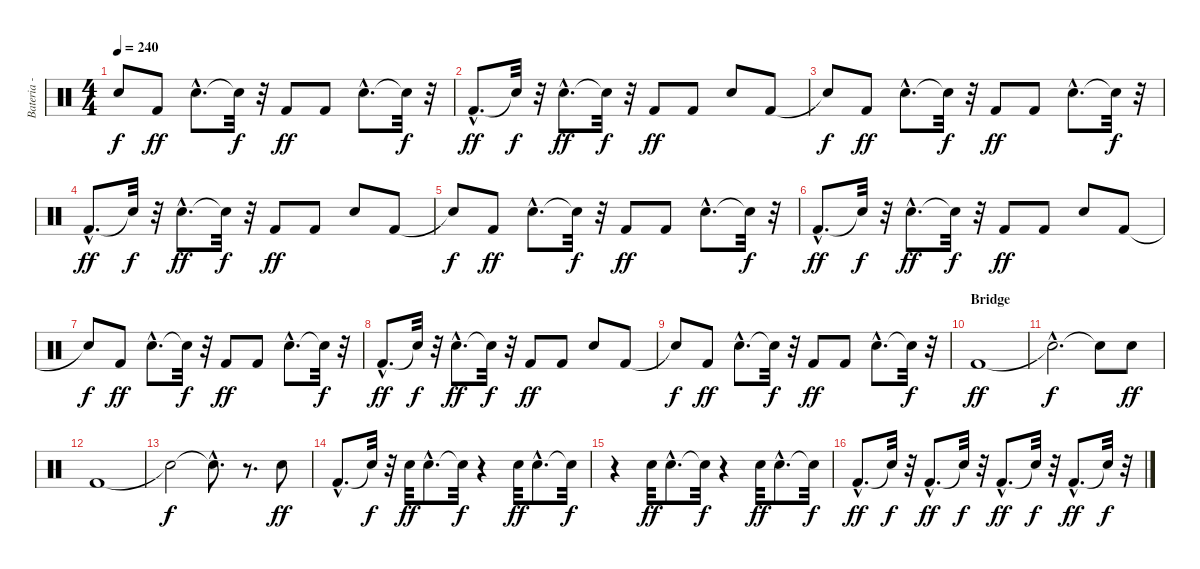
\track ("Bateria - Larzon" "Bateria - ") {instrument percussion}
\staff {score}
\articulation defaults
\ts (4 4)
\tempo 240
\clef neutral
\ks c "Snare (hit)"{t}.8{dy f} "Kick (hit) 2".8{dy ff} "Electric Snare (hit)"{hac}.8{d} "Snare (hit)"{t}.32{dy f}
r.32 "Kick (hit) 2".8{dy ff} "Kick (hit) 2".8 "Electric Snare (hit)"{hac}.8{d} "Snare (hit)"{t}.32{dy f} r.32 |
"Kick (hit) 2"{hac}.8{d dy ff} "Snare (hit)"{t}.32{dy f} r.32 "Electric Snare (hit)"{hac}.8{d dy ff} "Snare (hit)"{t}.32{dy f} r.32 "Kick (hit) 2".8{dy ff} "Kick (hit) 2".8 "Electric Snare (hit)".8 "Kick (hit) 2".8 |
"Snare (hit)"{t}.8{dy f} "Kick (hit) 2".8{dy ff} "Electric Snare (hit)"{hac}.8{d} "Snare (hit)"{t}.32{dy f} r.32 "Kick (hit) 2".8{dy ff} "Kick (hit) 2".8 "Electric Snare (hit)"{hac}.8{d} "Snare (hit)"{t}.32{dy f} r.32 |
"Kick (hit) 2"{hac}.8{d dy ff} "Snare (hit)"{t}.32{dy f} r.32 "Electric Snare (hit)"{hac}.8{d dy ff} "Snare (hit)"{t}.32{dy f} r.32 "Kick (hit) 2".8{dy ff} "Kick (hit) 2".8 "Electric Snare (hit)".8 "Kick (hit) 2".8 |
"Snare (hit)"{t}.8{dy f} "Kick (hit) 2".8{dy ff} "Electric Snare (hit)"{hac}.8{d} "Snare (hit)"{t}.32{dy f} r.32 "Kick (hit) 2".8{dy ff} "Kick (hit) 2".8 "Electric Snare (hit)"{hac}.8{d} "Snare (hit)"{t}.32{dy f} r.32 |
"Kick (hit) 2"{hac}.8{d dy ff} "Snare (hit)"{t}.32{dy f} r.32 "Electric Snare (hit)"{hac}.8{d dy ff} "Snare (hit)"{t}.32{dy f} r.32 "Kick (hit) 2".8{dy ff} "Kick (hit) 2".8 "Electric Snare (hit)".8 "Kick (hit) 2".8 |
"Snare (hit)"{t}.8{dy f} "Kick (hit) 2".8{dy ff} "Electric Snare (hit)"{hac}.8{d} "Snare (hit)"{t}.32{dy f} r.32 "Kick (hit) 2".8{dy ff} "Kick (hit) 2".8 "Electric Snare (hit)"{hac}.8{d} "Snare (hit)"{t}.32{dy f} r.32 |
"Kick (hit) 2"{hac}.8{d dy ff} "Snare (hit)"{t}.32{dy f} r.32 "Electric Snare (hit)"{hac}.8{d dy ff} "Snare (hit)"{t}.32{dy f} r.32 "Kick (hit) 2".8{dy ff} "Kick (hit) 2".8 "Electric Snare (hit)".8 "Kick (hit) 2".8 |
"Snare (hit)"{t}.8{dy f} "Kick (hit) 2".8{dy ff} "Electric Snare (hit)"{hac}.8{d} "Snare (hit)"{t}.32{dy f} r.32 "Kick (hit) 2".8{dy ff} "Kick (hit) 2".8 "Electric Snare (hit)"{hac}.8{d} "Snare (hit)"{t}.32{dy f} r.32 |
\section ("" "Bridge")
"Kick (hit) 2".1{dy ff} |
"Snare (hit)"{hac t}.2{d dy f} "Snare (hit)"{t}.8 "Electric Snare (hit)".8{dy ff} |
"Kick (hit) 2".1 |
"Snare (hit)"{t}.2{dy f} "Snare (hit)"{hac t}.8{d} r.8{d} "Electric Snare (hit)".8{dy ff} |
"Kick (hit) 2"{hac}.8{d} "Snare (hit)"{t}.32{dy f} r.32 "Electric Snare (hit)".32{dy ff} "Electric Snare (hit)"{hac}.8{d} "Snare (hit)"{t}.32{dy f} r.4 "Electric Snare (hit)".32{dy ff} "Electric Snare (hit)"{hac}.8{d} "Snare (hit)"{t}.32{dy f} |
r.4 "Electric Snare (hit)".32{dy ff} "Electric Snare (hit)"{hac}.8{d} "Snare (hit)"{t}.32{dy f} r.4 "Electric Snare (hit)".32{dy ff} "Electric Snare (hit)"{hac}.8{d} "Snare (hit)"{t}.32{dy f} |
"Kick (hit) 2"{hac}.8{d dy ff} "Snare (hit)"{t}.32{dy f} r.32 "Kick (hit) 2"{hac}.8{d dy ff} "Snare (hit)"{t}.32{dy f} r.32 "Kick (hit) 2"{hac}.8{d dy ff} "Snare (hit)"{t}.32{dy f} r.32 "Kick (hit) 2"{hac}.8{d dy ff} "Snare (hit)"{t}.32{dy f} r.32
